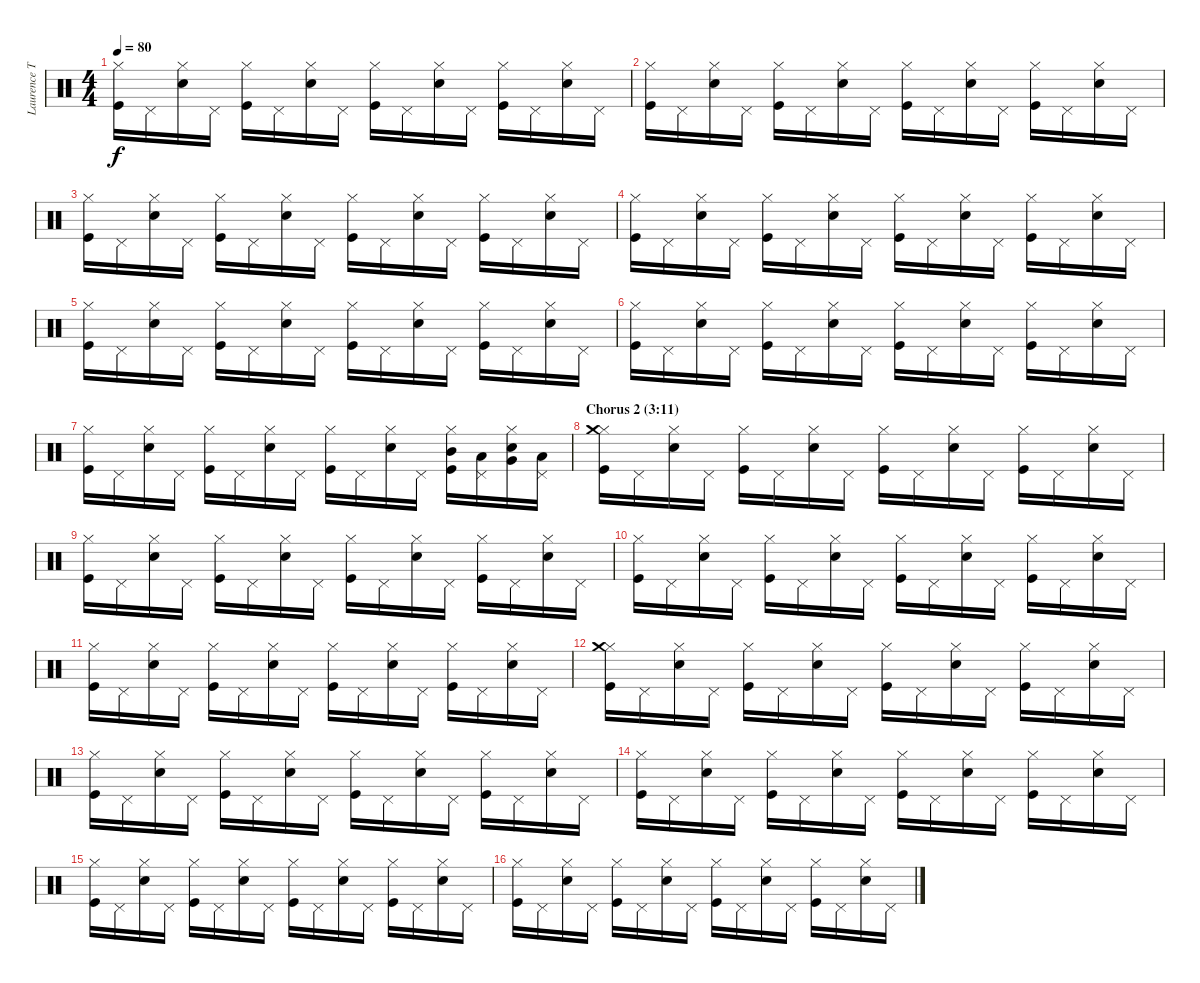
\track ("Laurence Tolhurst (drums)" "Laurence T") {instrument percussion}
\staff {score}
\articulation defaults
\ts (4 4)
\tempo 80
\clef neutral
\ks c
("Kick (hit)" "Hi-Hat (closed)").16{dy f} "Pedal Hi-Hat (hit)".16 ("Snare (hit) 2" "Hi-Hat (closed)").16 "Pedal Hi-Hat (hit)".16 ("Kick (hit)" "Hi-Hat (closed)").16 "Pedal Hi-Hat (hit)".16 ("Snare (hit) 2" "Hi-Hat (closed)").16 "Pedal Hi-Hat (hit)".16 ("Kick (hit)" "Hi-Hat (closed)").16 "Pedal Hi-Hat (hit)".16 ("Snare (hit) 2" "Hi-Hat (closed)").16 "Pedal Hi-Hat (hit)".16 ("Kick (hit)" "Hi-Hat (closed)").16 "Pedal Hi-Hat (hit)".16 ("Snare (hit) 2" "Hi-Hat (closed)").16 "Pedal Hi-Hat (hit)".16 |
("Kick (hit)" "Hi-Hat (closed)").16 "Pedal Hi-Hat (hit)".16 ("Snare (hit) 2" "Hi-Hat (closed)").16 "Pedal Hi-Hat (hit)".16 ("Kick (hit)" "Hi-Hat (closed)").16 "Pedal Hi-Hat (hit)".16 ("Snare (hit) 2" "Hi-Hat (closed)").16 "Pedal Hi-Hat (hit)".16 ("Kick (hit)" "Hi-Hat (closed)").16 "Pedal Hi-Hat (hit)".16 ("Snare (hit) 2" "Hi-Hat (closed)").16 "Pedal Hi-Hat (hit)".16 ("Kick (hit)" "Hi-Hat (closed)").16 "Pedal Hi-Hat (hit)".16 ("Snare (hit) 2" "Hi-Hat (closed)").16 "Pedal Hi-Hat (hit)".16 |
("Kick (hit)" "Hi-Hat (closed)").16 "Pedal Hi-Hat (hit)".16 ("Snare (hit) 2" "Hi-Hat (closed)").16 "Pedal Hi-Hat (hit)".16 ("Kick (hit)" "Hi-Hat (closed)").16 "Pedal Hi-Hat (hit)".16 ("Snare (hit) 2" "Hi-Hat (closed)").16 "Pedal Hi-Hat (hit)".16 ("Kick (hit)" "Hi-Hat (closed)").16 "Pedal Hi-Hat (hit)".16 ("Snare (hit) 2" "Hi-Hat (closed)").16 "Pedal Hi-Hat (hit)".16 ("Kick (hit)" "Hi-Hat (closed)").16 "Pedal Hi-Hat (hit)".16 ("Snare (hit) 2" "Hi-Hat (closed)").16 "Pedal Hi-Hat (hit)".16 |
("Kick (hit)" "Hi-Hat (closed)").16 "Pedal Hi-Hat (hit)".16 ("Snare (hit) 2" "Hi-Hat (closed)").16 "Pedal Hi-Hat (hit)".16 ("Kick (hit)" "Hi-Hat (closed)").16 "Pedal Hi-Hat (hit)".16 ("Snare (hit) 2" "Hi-Hat (closed)").16 "Pedal Hi-Hat (hit)".16 ("Kick (hit)" "Hi-Hat (closed)").16 "Pedal Hi-Hat (hit)".16 ("Snare (hit) 2" "Hi-Hat (closed)").16 "Pedal Hi-Hat (hit)".16 ("Kick (hit)" "Hi-Hat (closed)").16 "Pedal Hi-Hat (hit)".16 ("Snare (hit) 2" "Hi-Hat (closed)").16 "Pedal Hi-Hat (hit)".16 |
("Kick (hit)" "Hi-Hat (closed)").16 "Pedal Hi-Hat (hit)".16 ("Snare (hit) 2" "Hi-Hat (closed)").16 "Pedal Hi-Hat (hit)".16 ("Kick (hit)" "Hi-Hat (closed)").16 "Pedal Hi-Hat (hit)".16 ("Snare (hit) 2" "Hi-Hat (closed)").16 "Pedal Hi-Hat (hit)".16 ("Kick (hit)" "Hi-Hat (closed)").16 "Pedal Hi-Hat (hit)".16 ("Snare (hit) 2" "Hi-Hat (closed)").16 "Pedal Hi-Hat (hit)".16 ("Kick (hit)" "Hi-Hat (closed)").16 "Pedal Hi-Hat (hit)".16 ("Snare (hit) 2" "Hi-Hat (closed)").16 "Pedal Hi-Hat (hit)".16 |
("Kick (hit)" "Hi-Hat (closed)").16 "Pedal Hi-Hat (hit)".16 ("Snare (hit) 2" "Hi-Hat (closed)").16 "Pedal Hi-Hat (hit)".16 ("Kick (hit)" "Hi-Hat (closed)").16 "Pedal Hi-Hat (hit)".16 ("Snare (hit) 2" "Hi-Hat (closed)").16 "Pedal Hi-Hat (hit)".16 ("Kick (hit)" "Hi-Hat (closed)").16 "Pedal Hi-Hat (hit)".16 ("Snare (hit) 2" "Hi-Hat (closed)").16 "Pedal Hi-Hat (hit)".16 ("Kick (hit)" "Hi-Hat (closed)").16 "Pedal Hi-Hat (hit)".16 ("Snare (hit) 2" "Hi-Hat (closed)").16 "Pedal Hi-Hat (hit)".16 |
("Kick (hit)" "Hi-Hat (closed)").16 "Pedal Hi-Hat (hit)".16 ("Snare (hit) 2" "Hi-Hat (closed)").16 "Pedal Hi-Hat (hit)".16 ("Kick (hit)" "Hi-Hat (closed)").16 "Pedal Hi-Hat (hit)".16 ("Snare (hit) 2" "Hi-Hat (closed)").16 "Pedal Hi-Hat (hit)".16 ("Kick (hit)" "Hi-Hat (closed)").16 "Pedal Hi-Hat (hit)".16 ("Snare (hit) 2" "Hi-Hat (closed)").16 "Pedal Hi-Hat (hit)".16 ("Kick (hit)" "Hi-Hat (closed)" "Mid Tom (hit)").16 ("Pedal Hi-Hat (hit)" "Low Tom (hit)").16 ("Snare (hit) 2" "Hi-Hat (closed)" "Very Low Tom (hit)").16 ("Pedal Hi-Hat (hit)" "Low Floor Tom (hit)").16 |
\section ("" "Chorus 2 (3:11)")
("Kick (hit)" "Hi-Hat (closed)" "Crash medium (hit)").16 "Pedal Hi-Hat (hit)".16 ("Snare (hit) 2" "Hi-Hat (closed)").16 "Pedal Hi-Hat (hit)".16 ("Kick (hit)" "Hi-Hat (closed)").16 "Pedal Hi-Hat (hit)".16 ("Snare (hit) 2" "Hi-Hat (closed)").16 "Pedal Hi-Hat (hit)".16 ("Kick (hit)" "Hi-Hat (closed)").16 "Pedal Hi-Hat (hit)".16 ("Snare (hit) 2" "Hi-Hat (closed)").16 "Pedal Hi-Hat (hit)".16 ("Kick (hit)" "Hi-Hat (closed)").16 "Pedal Hi-Hat (hit)".16 ("Snare (hit) 2" "Hi-Hat (closed)").16 "Pedal Hi-Hat (hit)".16 |
("Kick (hit)" "Hi-Hat (closed)").16 "Pedal Hi-Hat (hit)".16 ("Snare (hit) 2" "Hi-Hat (closed)").16 "Pedal Hi-Hat (hit)".16 ("Kick (hit)" "Hi-Hat (closed)").16 "Pedal Hi-Hat (hit)".16 ("Snare (hit) 2" "Hi-Hat (closed)").16 "Pedal Hi-Hat (hit)".16 ("Kick (hit)" "Hi-Hat (closed)").16 "Pedal Hi-Hat (hit)".16 ("Snare (hit) 2" "Hi-Hat (closed)").16 "Pedal Hi-Hat (hit)".16 ("Kick (hit)" "Hi-Hat (closed)").16 "Pedal Hi-Hat (hit)".16 ("Snare (hit) 2" "Hi-Hat (closed)").16 "Pedal Hi-Hat (hit)".16 |
("Kick (hit)" "Hi-Hat (closed)").16 "Pedal Hi-Hat (hit)".16 ("Snare (hit) 2" "Hi-Hat (closed)").16 "Pedal Hi-Hat (hit)".16 ("Kick (hit)" "Hi-Hat (closed)").16 "Pedal Hi-Hat (hit)".16 ("Snare (hit) 2" "Hi-Hat (closed)").16 "Pedal Hi-Hat (hit)".16 ("Kick (hit)" "Hi-Hat (closed)").16 "Pedal Hi-Hat (hit)".16 ("Snare (hit) 2" "Hi-Hat (closed)").16 "Pedal Hi-Hat (hit)".16 ("Kick (hit)" "Hi-Hat (closed)").16 "Pedal Hi-Hat (hit)".16 ("Snare (hit) 2" "Hi-Hat (closed)").16 "Pedal Hi-Hat (hit)".16 |
("Kick (hit)" "Hi-Hat (closed)").16 "Pedal Hi-Hat (hit)".16 ("Snare (hit) 2" "Hi-Hat (closed)").16 "Pedal Hi-Hat (hit)".16 ("Kick (hit)" "Hi-Hat (closed)").16 "Pedal Hi-Hat (hit)".16 ("Snare (hit) 2" "Hi-Hat (closed)").16 "Pedal Hi-Hat (hit)".16 ("Kick (hit)" "Hi-Hat (closed)").16 "Pedal Hi-Hat (hit)".16 ("Snare (hit) 2" "Hi-Hat (closed)").16 "Pedal Hi-Hat (hit)".16 ("Kick (hit)" "Hi-Hat (closed)").16 "Pedal Hi-Hat (hit)".16 ("Snare (hit) 2" "Hi-Hat (closed)").16 "Pedal Hi-Hat (hit)".16 |
("Kick (hit)" "Hi-Hat (closed)" "Crash medium (hit)").16 "Pedal Hi-Hat (hit)".16 ("Snare (hit) 2" "Hi-Hat (closed)").16 "Pedal Hi-Hat (hit)".16 ("Kick (hit)" "Hi-Hat (closed)").16 "Pedal Hi-Hat (hit)".16 ("Snare (hit) 2" "Hi-Hat (closed)").16 "Pedal Hi-Hat (hit)".16 ("Kick (hit)" "Hi-Hat (closed)").16 "Pedal Hi-Hat (hit)".16 ("Snare (hit) 2" "Hi-Hat (closed)").16 "Pedal Hi-Hat (hit)".16 ("Kick (hit)" "Hi-Hat (closed)").16 "Pedal Hi-Hat (hit)".16 ("Snare (hit) 2" "Hi-Hat (closed)").16 "Pedal Hi-Hat (hit)".16 |
("Kick (hit)" "Hi-Hat (closed)").16 "Pedal Hi-Hat (hit)".16 ("Snare (hit) 2" "Hi-Hat (closed)").16 "Pedal Hi-Hat (hit)".16 ("Kick (hit)" "Hi-Hat (closed)").16 "Pedal Hi-Hat (hit)".16 ("Snare (hit) 2" "Hi-Hat (closed)").16 "Pedal Hi-Hat (hit)".16 ("Kick (hit)" "Hi-Hat (closed)").16 "Pedal Hi-Hat (hit)".16 ("Snare (hit) 2" "Hi-Hat (closed)").16 "Pedal Hi-Hat (hit)".16 ("Kick (hit)" "Hi-Hat (closed)").16 "Pedal Hi-Hat (hit)".16 ("Snare (hit) 2" "Hi-Hat (closed)").16 "Pedal Hi-Hat (hit)".16 |
("Kick (hit)" "Hi-Hat (closed)").16 "Pedal Hi-Hat (hit)".16 ("Snare (hit) 2" "Hi-Hat (closed)").16 "Pedal Hi-Hat (hit)".16 ("Kick (hit)" "Hi-Hat (closed)").16 "Pedal Hi-Hat (hit)".16 ("Snare (hit) 2" "Hi-Hat (closed)").16 "Pedal Hi-Hat (hit)".16 ("Kick (hit)" "Hi-Hat (closed)").16 "Pedal Hi-Hat (hit)".16 ("Snare (hit) 2" "Hi-Hat (closed)").16 "Pedal Hi-Hat (hit)".16 ("Kick (hit)" "Hi-Hat (closed)").16 "Pedal Hi-Hat (hit)".16 ("Snare (hit) 2" "Hi-Hat (closed)").16 "Pedal Hi-Hat (hit)".16 |
("Kick (hit)" "Hi-Hat (closed)").16 "Pedal Hi-Hat (hit)".16 ("Snare (hit) 2" "Hi-Hat (closed)").16 "Pedal Hi-Hat (hit)".16 ("Kick (hit)" "Hi-Hat (closed)").16 "Pedal Hi-Hat (hit)".16 ("Snare (hit) 2" "Hi-Hat (closed)").16 "Pedal Hi-Hat (hit)".16 ("Kick (hit)" "Hi-Hat (closed)").16 "Pedal Hi-Hat (hit)".16 ("Snare (hit) 2" "Hi-Hat (closed)").16 "Pedal Hi-Hat (hit)".16 ("Kick (hit)" "Hi-Hat (closed)").16 "Pedal Hi-Hat (hit)".16 ("Snare (hit) 2" "Hi-Hat (closed)").16 "Pedal Hi-Hat (hit)".16 |
("Kick (hit)" "Hi-Hat (closed)").16 "Pedal Hi-Hat (hit)".16 ("Snare (hit) 2" "Hi-Hat (closed)").16 "Pedal Hi-Hat (hit)".16 ("Kick (hit)" "Hi-Hat (closed)").16 "Pedal Hi-Hat (hit)".16 ("Snare (hit) 2" "Hi-Hat (closed)").16 "Pedal Hi-Hat (hit)".16 ("Kick (hit)" "Hi-Hat (closed)").16 "Pedal Hi-Hat (hit)".16 ("Snare (hit) 2" "Hi-Hat (closed)").16 "Pedal Hi-Hat (hit)".16 ("Kick (hit)" "Hi-Hat (closed)").16 "Pedal Hi-Hat (hit)".16 ("Snare (hit) 2" "Hi-Hat (closed)").16 "Pedal Hi-Hat (hit)".16
